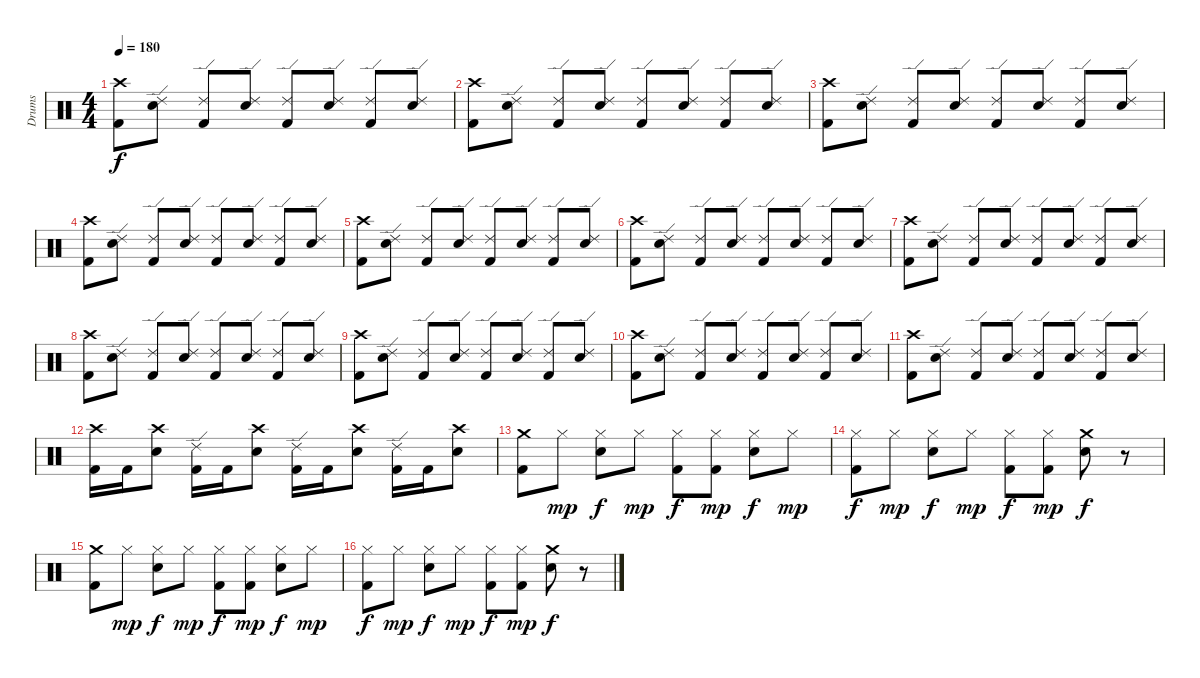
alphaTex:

\track ("Drums" "Drums") {instrument percussion}
\staff {score}
\articulation defaults
\ts (4 4)
\tempo 180
\clef neutral
\ks c
("Kick (hit) 2" "Crash high (hit)").8{dy f} ("Electric Snare (hit)" "Ride (edge) 2").8 ("Kick (hit) 2" "Ride (edge) 2").8 ("Electric Snare (hit)" "Ride (edge) 2").8 ("Kick (hit) 2" "Ride (edge) 2").8 ("Electric Snare (hit)" "Ride (edge) 2").8 ("Kick (hit) 2" "Ride (edge) 2").8 ("Electric Snare (hit)" "Ride (edge) 2").8 |
("Kick (hit) 2" "Crash high (hit)").8 ("Electric Snare (hit)" "Ride (edge) 2").8 ("Kick (hit) 2" "Ride (edge) 2").8 ("Electric Snare (hit)" "Ride (edge) 2").8 ("Kick (hit) 2" "Ride (edge) 2").8 ("Electric Snare (hit)" "Ride (edge) 2").8 ("Kick (hit) 2" "Ride (edge) 2").8 ("Electric Snare (hit)" "Ride (edge) 2").8 |
("Kick (hit) 2" "Crash high (hit)").8 ("Electric Snare (hit)" "Ride (edge) 2").8 ("Kick (hit) 2" "Ride (edge) 2").8 ("Electric Snare (hit)" "Ride (edge) 2").8 ("Kick (hit) 2" "Ride (edge) 2").8 ("Electric Snare (hit)" "Ride (edge) 2").8 ("Kick (hit) 2" "Ride (edge) 2").8 ("Electric Snare (hit)" "Ride (edge) 2").8 |
("Kick (hit) 2" "Crash high (hit)").8 ("Electric Snare (hit)" "Ride (edge) 2").8 ("Kick (hit) 2" "Ride (edge) 2").8 ("Electric Snare (hit)" "Ride (edge) 2").8 ("Kick (hit) 2" "Ride (edge) 2").8 ("Electric Snare (hit)" "Ride (edge) 2").8 ("Kick (hit) 2" "Ride (edge) 2").8 ("Electric Snare (hit)" "Ride (edge) 2").8 |
("Kick (hit) 2" "Crash high (hit)").8 ("Electric Snare (hit)" "Ride (edge) 2").8 ("Kick (hit) 2" "Ride (edge) 2").8 ("Electric Snare (hit)" "Ride (edge) 2").8 ("Kick (hit) 2" "Ride (edge) 2").8 ("Electric Snare (hit)" "Ride (edge) 2").8 ("Kick (hit) 2" "Ride (edge) 2").8 ("Electric Snare (hit)" "Ride (edge) 2").8 |
("Kick (hit) 2" "Crash high (hit)").8 ("Electric Snare (hit)" "Ride (edge) 2").8 ("Kick (hit) 2" "Ride (edge) 2").8 ("Electric Snare (hit)" "Ride (edge) 2").8 ("Kick (hit) 2" "Ride (edge) 2").8 ("Electric Snare (hit)" "Ride (edge) 2").8 ("Kick (hit) 2" "Ride (edge) 2").8 ("Electric Snare (hit)" "Ride (edge) 2").8 |
("Kick (hit) 2" "Crash high (hit)").8 ("Electric Snare (hit)" "Ride (edge) 2").8 ("Kick (hit) 2" "Ride (edge) 2").8 ("Electric Snare (hit)" "Ride (edge) 2").8 ("Kick (hit) 2" "Ride (edge) 2").8 ("Electric Snare (hit)" "Ride (edge) 2").8 ("Kick (hit) 2" "Ride (edge) 2").8 ("Electric Snare (hit)" "Ride (edge) 2").8 |
("Kick (hit) 2" "Crash high (hit)").8 ("Electric Snare (hit)" "Ride (edge) 2").8 ("Kick (hit) 2" "Ride (edge) 2").8 ("Electric Snare (hit)" "Ride (edge) 2").8 ("Kick (hit) 2" "Ride (edge) 2").8 ("Electric Snare (hit)" "Ride (edge) 2").8 ("Kick (hit) 2" "Ride (edge) 2").8 ("Electric Snare (hit)" "Ride (edge) 2").8 |
("Kick (hit) 2" "Crash high (hit)").8 ("Electric Snare (hit)" "Ride (edge) 2").8 ("Kick (hit) 2" "Ride (edge) 2").8 ("Electric Snare (hit)" "Ride (edge) 2").8 ("Kick (hit) 2" "Ride (edge) 2").8 ("Electric Snare (hit)" "Ride (edge) 2").8 ("Kick (hit) 2" "Ride (edge) 2").8 ("Electric Snare (hit)" "Ride (edge) 2").8 |
("Kick (hit) 2" "Crash high (hit)").8 ("Electric Snare (hit)" "Ride (edge) 2").8 ("Kick (hit) 2" "Ride (edge) 2").8 ("Electric Snare (hit)" "Ride (edge) 2").8 ("Kick (hit) 2" "Ride (edge) 2").8 ("Electric Snare (hit)" "Ride (edge) 2").8 ("Kick (hit) 2" "Ride (edge) 2").8 ("Electric Snare (hit)" "Ride (edge) 2").8 |
("Kick (hit) 2" "Crash high (hit)").8 ("Electric Snare (hit)" "Ride (edge) 2").8 ("Kick (hit) 2" "Ride (edge) 2").8 ("Electric Snare (hit)" "Ride (edge) 2").8 ("Kick (hit) 2" "Ride (edge) 2").8 ("Electric Snare (hit)" "Ride (edge) 2").8 ("Kick (hit) 2" "Ride (edge) 2").8 ("Electric Snare (hit)" "Ride (edge) 2").8 |
("Kick (hit) 2" "Crash high (hit)").16 "Kick (hit) 2".16 ("Electric Snare (hit)" "Crash high (hit)").8 ("Kick (hit) 2" "Ride (edge) 2").16 "Kick (hit) 2".16 ("Electric Snare (hit)" "Crash high (hit)").8 ("Kick (hit) 2" "Ride (edge) 2").16 "Kick (hit) 2".16 ("Electric Snare (hit)" "Crash high (hit)").8 ("Kick (hit) 2" "Ride (edge) 2").16 "Kick (hit) 2".16 ("Electric Snare (hit)" "Crash high (hit)").8 |
("Kick (hit) 2" "Crash medium (hit)").8 "Hi-Hat (closed)".8{dy mp} ("Electric Snare (hit)" "Hi-Hat (closed)").8{dy f} "Hi-Hat (closed)".8{dy mp} ("Kick (hit) 2" "Hi-Hat (closed)").8{dy f} ("Kick (hit) 2" "Hi-Hat (closed)").8{dy mp} ("Electric Snare (hit)" "Hi-Hat (closed)").8{dy f} "Hi-Hat (closed)".8{dy mp} |
("Kick (hit) 2" "Hi-Hat (closed)").8{dy f} "Hi-Hat (closed)".8{dy mp} ("Electric Snare (hit)" "Hi-Hat (closed)").8{dy f} "Hi-Hat (closed)".8{dy mp} ("Kick (hit) 2" "Hi-Hat (closed)").8{dy f} ("Kick (hit) 2" "Hi-Hat (closed)").8{dy mp} ("Electric Snare (hit)" "Crash medium (hit)").8{dy f} r.8 |
("Kick (hit) 2" "Crash medium (hit)").8 "Hi-Hat (closed)".8{dy mp} ("Electric Snare (hit)" "Hi-Hat (closed)").8{dy f} "Hi-Hat (closed)".8{dy mp} ("Kick (hit) 2" "Hi-Hat (closed)").8{dy f} ("Kick (hit) 2" "Hi-Hat (closed)").8{dy mp} ("Electric Snare (hit)" "Hi-Hat (closed)").8{dy f} "Hi-Hat (closed)".8{dy mp} |
("Kick (hit) 2" "Hi-Hat (closed)").8{dy f} "Hi-Hat (closed)".8{dy mp} ("Electric Snare (hit)" "Hi-Hat (closed)").8{dy f} "Hi-Hat (closed)".8{dy mp} ("Kick (hit) 2" "Hi-Hat (closed)").8{dy f} ("Kick (hit) 2" "Hi-Hat (closed)").8{dy mp} ("Electric Snare (hit)" "Crash medium (hit)").8{dy f} r.8
